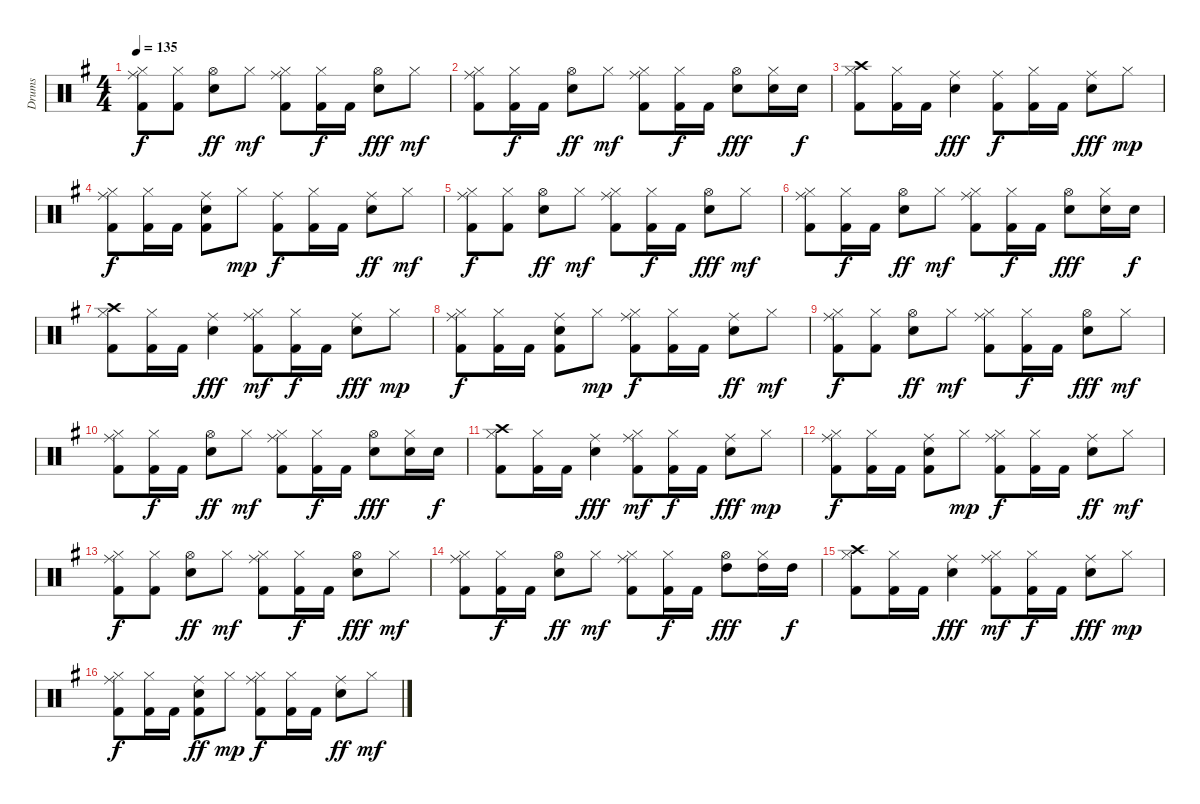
\track ("Drums" "Drums") {instrument percussion}
\staff {score}
\articulation defaults
\ts (4 4)
\tempo 135
\clef neutral
\ks g
("Hi-Hat (closed)" "Ride (middle)" "Kick (hit) 2").8{dy f} ("Hi-Hat (closed)" "Kick (hit) 2").8 ("Hi-Hat (open)" "Electric Snare (hit)").8{dy ff} "Hi-Hat (closed)".8{dy mf} ("Hi-Hat (closed)" "Ride (middle)" "Kick (hit) 2").8 ("Hi-Hat (closed)" "Kick (hit) 2").16{dy f} "Kick (hit) 2".16 ("Hi-Hat (open)" "Electric Snare (hit)").8{dy fff} "Hi-Hat (closed)".8{dy mf} |
("Hi-Hat (closed)" "Ride (middle)" "Kick (hit) 2").8 ("Hi-Hat (closed)" "Kick (hit) 2").16{dy f} "Kick (hit) 2".16 ("Hi-Hat (open)" "Electric Snare (hit)").8{dy ff} "Hi-Hat (closed)".8{dy mf} ("Hi-Hat (closed)" "Ride (middle)" "Kick (hit) 2").8 ("Hi-Hat (closed)" "Kick (hit) 2").16{dy f} "Kick (hit) 2".16 ("Hi-Hat (open)" "Electric Snare (hit)").8{dy fff} ("Hi-Hat (closed)" "Electric Snare (hit)").16 "Electric Snare (hit)".16{dy f} |
("Hi-Hat (closed)" "Crash high (hit)" "Kick (hit) 2").8 ("Hi-Hat (closed)" "Kick (hit) 2").16 "Kick (hit) 2".16 ("Ride (middle)" "Electric Snare (hit)").4{dy fff} ("Ride (middle)" "Kick (hit) 2").8{dy f} ("Hi-Hat (closed)" "Kick (hit) 2").16 "Kick (hit) 2".16 ("Ride (middle)" "Electric Snare (hit)").8{dy fff} "Hi-Hat (closed)".8{dy mp} |
("Hi-Hat (closed)" "Ride (middle)" "Kick (hit) 2").8{dy f} ("Hi-Hat (closed)" "Kick (hit) 2").16 "Kick (hit) 2".16 ("Ride (middle)" "Electric Snare (hit)" "Kick (hit) 2").8 "Hi-Hat (closed)".8{dy mp} ("Ride (middle)" "Kick (hit) 2").8{dy f} ("Hi-Hat (closed)" "Kick (hit) 2").16 "Kick (hit) 2".16 ("Ride (middle)" "Electric Snare (hit)").8{dy ff} "Hi-Hat (closed)".8{dy mf} |
("Hi-Hat (closed)" "Ride (middle)" "Kick (hit) 2").8{dy f} ("Hi-Hat (closed)" "Kick (hit) 2").8 ("Hi-Hat (open)" "Electric Snare (hit)").8{dy ff} "Hi-Hat (closed)".8{dy mf} ("Hi-Hat (closed)" "Ride (middle)" "Kick (hit) 2").8 ("Hi-Hat (closed)" "Kick (hit) 2").16{dy f} "Kick (hit) 2".16 ("Hi-Hat (open)" "Electric Snare (hit)").8{dy fff} "Hi-Hat (closed)".8{dy mf} |
("Hi-Hat (closed)" "Ride (middle)" "Kick (hit) 2").8 ("Hi-Hat (closed)" "Kick (hit) 2").16{dy f} "Kick (hit) 2".16 ("Hi-Hat (open)" "Electric Snare (hit)").8{dy ff} "Hi-Hat (closed)".8{dy mf} ("Hi-Hat (closed)" "Ride (middle)" "Kick (hit) 2").8 ("Hi-Hat (closed)" "Kick (hit) 2").16{dy f} "Kick (hit) 2".16 ("Hi-Hat (open)" "Electric Snare (hit)").8{dy fff} ("Hi-Hat (closed)" "Electric Snare (hit)").16 "Electric Snare (hit)".16{dy f} |
("Hi-Hat (closed)" "Crash high (hit)" "Kick (hit) 2").8 ("Hi-Hat (closed)" "Kick (hit) 2").16 "Kick (hit) 2".16 ("Ride (middle)" "Electric Snare (hit)").4{dy fff} ("Hi-Hat (closed)" "Ride (middle)" "Kick (hit) 2").8{dy mf} ("Hi-Hat (closed)" "Kick (hit) 2").16{dy f} "Kick (hit) 2".16 ("Ride (middle)" "Electric Snare (hit)").8{dy fff} "Hi-Hat (closed)".8{dy mp} |
("Hi-Hat (closed)" "Ride (middle)" "Kick (hit) 2").8{dy f} ("Hi-Hat (closed)" "Kick (hit) 2").16 "Kick (hit) 2".16 ("Ride (middle)" "Electric Snare (hit)" "Kick (hit) 2").8 "Hi-Hat (closed)".8{dy mp} ("Hi-Hat (closed)" "Ride (middle)" "Kick (hit) 2").8{dy f} ("Hi-Hat (closed)" "Kick (hit) 2").16 "Kick (hit) 2".16 ("Ride (middle)" "Electric Snare (hit)").8{dy ff} "Hi-Hat (closed)".8{dy mf} |
("Hi-Hat (closed)" "Ride (middle)" "Kick (hit) 2").8{dy f} ("Hi-Hat (closed)" "Kick (hit) 2").8 ("Hi-Hat (open)" "Electric Snare (hit)").8{dy ff} "Hi-Hat (closed)".8{dy mf} ("Hi-Hat (closed)" "Ride (middle)" "Kick (hit) 2").8 ("Hi-Hat (closed)" "Kick (hit) 2").16{dy f} "Kick (hit) 2".16 ("Hi-Hat (open)" "Electric Snare (hit)").8{dy fff} "Hi-Hat (closed)".8{dy mf} |
("Hi-Hat (closed)" "Ride (middle)" "Kick (hit) 2").8 ("Hi-Hat (closed)" "Kick (hit) 2").16{dy f} "Kick (hit) 2".16 ("Hi-Hat (open)" "Electric Snare (hit)").8{dy ff} "Hi-Hat (closed)".8{dy mf} ("Hi-Hat (closed)" "Ride (middle)" "Kick (hit) 2").8 ("Hi-Hat (closed)" "Kick (hit) 2").16{dy f} "Kick (hit) 2".16 ("Hi-Hat (open)" "Electric Snare (hit)").8{dy fff} ("Hi-Hat (closed)" "Electric Snare (hit)").16 "Electric Snare (hit)".16{dy f} |
("Hi-Hat (closed)" "Crash high (hit)" "Kick (hit) 2").8 ("Hi-Hat (closed)" "Kick (hit) 2").16 "Kick (hit) 2".16 ("Ride (middle)" "Electric Snare (hit)").4{dy fff} ("Hi-Hat (closed)" "Ride (middle)" "Kick (hit) 2").8{dy mf} ("Hi-Hat (closed)" "Kick (hit) 2").16{dy f} "Kick (hit) 2".16 ("Ride (middle)" "Electric Snare (hit)").8{dy fff} "Hi-Hat (closed)".8{dy mp} |
("Hi-Hat (closed)" "Ride (middle)" "Kick (hit) 2").8{dy f} ("Hi-Hat (closed)" "Kick (hit) 2").16 "Kick (hit) 2".16 ("Ride (middle)" "Electric Snare (hit)" "Kick (hit) 2").8 "Hi-Hat (closed)".8{dy mp} ("Hi-Hat (closed)" "Ride (middle)" "Kick (hit) 2").8{dy f} ("Hi-Hat (closed)" "Kick (hit) 2").16 "Kick (hit) 2".16 ("Ride (middle)" "Electric Snare (hit)").8{dy ff} "Hi-Hat (closed)".8{dy mf} |
("Hi-Hat (closed)" "Ride (middle)" "Kick (hit) 2").8{dy f} ("Hi-Hat (closed)" "Kick (hit) 2").8 ("Hi-Hat (open)" "Electric Snare (hit)").8{dy ff} "Hi-Hat (closed)".8{dy mf} ("Hi-Hat (closed)" "Ride (middle)" "Kick (hit) 2").8 ("Hi-Hat (closed)" "Kick (hit) 2").16{dy f} "Kick (hit) 2".16 ("Hi-Hat (open)" "Electric Snare (hit)").8{dy fff} "Hi-Hat (closed)".8{dy mf} |
("Hi-Hat (closed)" "Ride (middle)" "Kick (hit) 2").8 ("Hi-Hat (closed)" "Kick (hit) 2").16{dy f} "Kick (hit) 2".16 ("Hi-Hat (open)" "Electric Snare (hit)").8{dy ff} "Hi-Hat (closed)".8{dy mf} ("Hi-Hat (closed)" "Ride (middle)" "Kick (hit) 2").8 ("Hi-Hat (closed)" "Kick (hit) 2").16{dy f} "Kick (hit) 2".16 ("Hi-Hat (open)" "High Tom (hit)").8{dy fff} ("Hi-Hat (closed)" "High Tom (hit)").16 "High Tom (hit)".16{dy f} |
("Hi-Hat (closed)" "Crash high (hit)" "Kick (hit) 2").8 ("Hi-Hat (closed)" "Kick (hit) 2").16 "Kick (hit) 2".16 ("Ride (middle)" "Electric Snare (hit)").4{dy fff} ("Hi-Hat (closed)" "Ride (middle)" "Kick (hit) 2").8{dy mf} ("Hi-Hat (closed)" "Kick (hit) 2").16{dy f} "Kick (hit) 2".16 ("Ride (middle)" "Electric Snare (hit)").8{dy fff} "Hi-Hat (closed)".8{dy mp} |
("Hi-Hat (closed)" "Ride (middle)" "Kick (hit) 2").8{dy f} ("Hi-Hat (closed)" "Kick (hit) 2").16 "Kick (hit) 2".16 ("Ride (middle)" "Electric Snare (hit)" "Kick (hit) 2").8{dy ff} "Hi-Hat (closed)".8{dy mp} ("Hi-Hat (closed)" "Ride (middle)" "Kick (hit) 2").8{dy f} ("Hi-Hat (closed)" "Kick (hit) 2").16 "Kick (hit) 2".16 ("Ride (middle)" "Electric Snare (hit)").8{dy ff} "Hi-Hat (closed)".8{dy mf}
